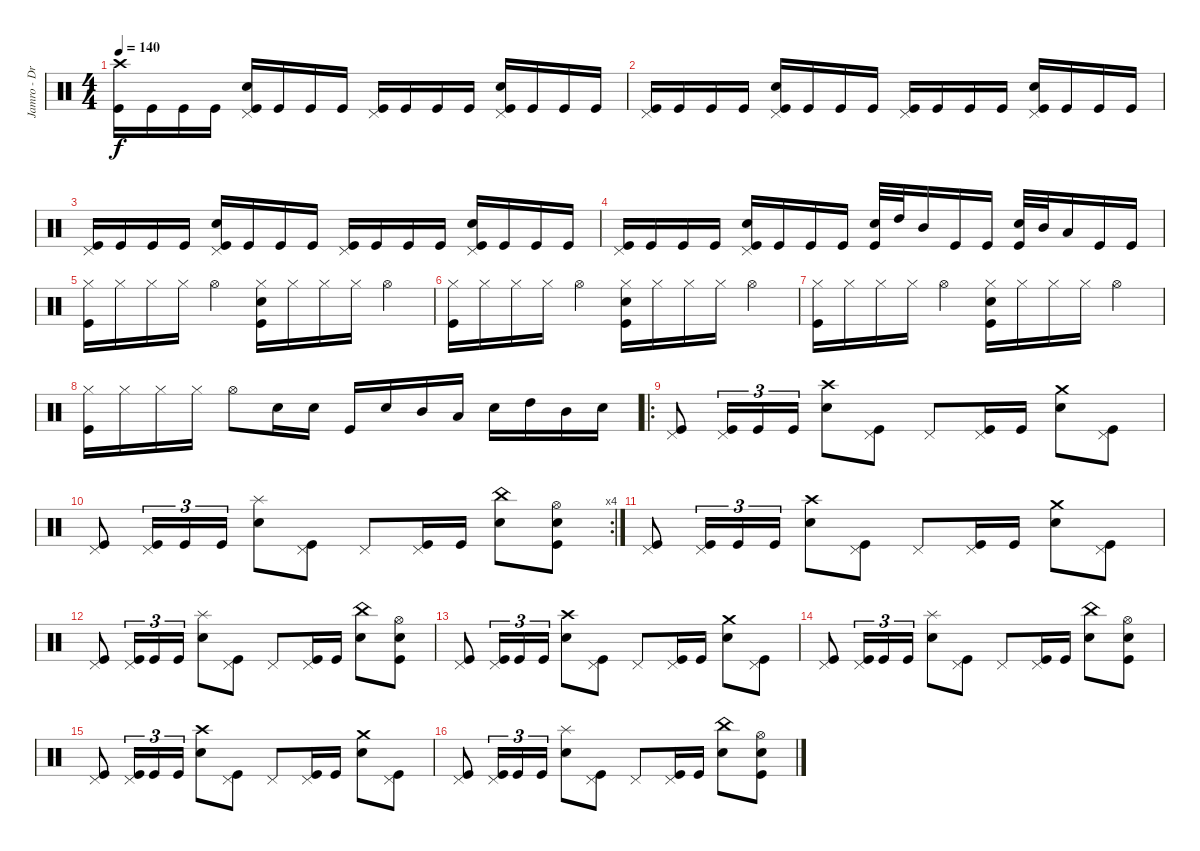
\track ("Jamro - Drums" "Jamro - Dr") {instrument percussion}
\staff {score}
\articulation defaults
\ts (4 4)
\tempo 140
\clef neutral
\ks c
("Kick (hit)" "Crash high (hit)").16{dy f} "Kick (hit)".16 "Kick (hit)".16 "Kick (hit)".16 ("Electric Snare (hit)" "Kick (hit)" "Pedal Hi-Hat (hit)").16 "Kick (hit)".16 "Kick (hit)".16 "Kick (hit)".16 ("Kick (hit)" "Pedal Hi-Hat (hit)").16 "Kick (hit)".16 "Kick (hit)".16 "Kick (hit)".16 ("Electric Snare (hit)" "Kick (hit)" "Pedal Hi-Hat (hit)").16 "Kick (hit)".16 "Kick (hit)".16 "Kick (hit)".16 |
("Kick (hit)" "Pedal Hi-Hat (hit)").16 "Kick (hit)".16 "Kick (hit)".16 "Kick (hit)".16 ("Electric Snare (hit)" "Kick (hit)" "Pedal Hi-Hat (hit)").16 "Kick (hit)".16 "Kick (hit)".16 "Kick (hit)".16 ("Kick (hit)" "Pedal Hi-Hat (hit)").16 "Kick (hit)".16 "Kick (hit)".16 "Kick (hit)".16 ("Electric Snare (hit)" "Kick (hit)" "Pedal Hi-Hat (hit)").16 "Kick (hit)".16 "Kick (hit)".16 "Kick (hit)".16 |
("Kick (hit)" "Pedal Hi-Hat (hit)").16 "Kick (hit)".16 "Kick (hit)".16 "Kick (hit)".16 ("Electric Snare (hit)" "Kick (hit)" "Pedal Hi-Hat (hit)").16 "Kick (hit)".16 "Kick (hit)".16 "Kick (hit)".16 ("Kick (hit)" "Pedal Hi-Hat (hit)").16 "Kick (hit)".16 "Kick (hit)".16 "Kick (hit)".16 ("Electric Snare (hit)" "Kick (hit)" "Pedal Hi-Hat (hit)").16 "Kick (hit)".16 "Kick (hit)".16 "Kick (hit)".16 |
("Kick (hit)" "Pedal Hi-Hat (hit)").16 "Kick (hit)".16 "Kick (hit)".16 "Kick (hit)".16 ("Kick (hit)" "Electric Snare (hit)" "Pedal Hi-Hat (hit)").16 "Kick (hit)".16 "Kick (hit)".16 "Kick (hit)".16 ("Electric Snare (hit)" "Kick (hit)").32 "High Tom (hit)".32 "Mid Tom (hit)".16 "Kick (hit)".16 "Kick (hit)".16 ("Electric Snare (hit)" "Kick (hit)").32 "Mid Tom (hit)".32 "Low Tom (hit)".16 "Kick (hit)".16 "Kick (hit)".16 |
("Hi-Hat (closed)" "Kick (hit)").16 "Hi-Hat (closed)".16 "Hi-Hat (closed)".16 "Hi-Hat (closed)".16 "Hi-Hat (open)".4 ("Kick (hit)" "Hi-Hat (closed)" "Electric Snare (hit)").16 "Hi-Hat (closed)".16 "Hi-Hat (closed)".16 "Hi-Hat (closed)".16 "Hi-Hat (open)".4 |
("Hi-Hat (closed)" "Kick (hit)").16 "Hi-Hat (closed)".16 "Hi-Hat (closed)".16 "Hi-Hat (closed)".16 "Hi-Hat (open)".4 ("Kick (hit)" "Hi-Hat (closed)" "Electric Snare (hit)").16 "Hi-Hat (closed)".16 "Hi-Hat (closed)".16 "Hi-Hat (closed)".16 "Hi-Hat (open)".4 |
("Hi-Hat (closed)" "Kick (hit)").16 "Hi-Hat (closed)".16 "Hi-Hat (closed)".16 "Hi-Hat (closed)".16 "Hi-Hat (open)".4 ("Kick (hit)" "Hi-Hat (closed)" "Electric Snare (hit)").16 "Hi-Hat (closed)".16 "Hi-Hat (closed)".16 "Hi-Hat (closed)".16 "Hi-Hat (open)".4 |
("Hi-Hat (closed)" "Kick (hit)").16 "Hi-Hat (closed)".16 "Hi-Hat (closed)".16 "Hi-Hat (closed)".16 "Hi-Hat (open)".8 "Electric Snare (hit)".16 "Electric Snare (hit)".16 "Kick (hit)".16 "Electric Snare (hit)".16 "Mid Tom (hit)".16 "Low Tom (hit)".16 "Electric Snare (hit)".16 "High Tom (hit)".16 "Mid Tom (hit)".16 "Electric Snare (hit)".16 |
\ro
("Kick (hit)" "Pedal Hi-Hat (hit)").8 ("Kick (hit)" "Pedal Hi-Hat (hit)").16{tu (3 2)} "Kick (hit)".16{tu (3 2)} "Kick (hit)".16{tu (3 2)} ("Electric Snare (hit)" "Crash high (hit)").8 ("Kick (hit)" "Pedal Hi-Hat (hit)").8 "Pedal Hi-Hat (hit)".8 ("Kick (hit)" "Pedal Hi-Hat (hit)").16 "Kick (hit)".16 ("Electric Snare (hit)" "Crash medium (hit)").8 ("Kick (hit)" "Pedal Hi-Hat (hit)").8 |
\rc 4
("Kick (hit)" "Pedal Hi-Hat (hit)").8 ("Kick (hit)" "Pedal Hi-Hat (hit)").16{tu (3 2)} "Kick (hit)".16{tu (3 2)} "Kick (hit)".16{tu (3 2)} ("Electric Snare (hit)" "Splash (hit)").8 ("Kick (hit)" "Pedal Hi-Hat (hit)").8 "Pedal Hi-Hat (hit)".8 ("Kick (hit)" "Pedal Hi-Hat (hit)").16 "Kick (hit)".16 ("Electric Snare (hit)" "China (hit)").8 ("Kick (hit)" "Electric Snare (hit)" "Hi-Hat (open)").8 |
("Kick (hit)" "Pedal Hi-Hat (hit)").8 ("Kick (hit)" "Pedal Hi-Hat (hit)").16{tu (3 2)} "Kick (hit)".16{tu (3 2)} "Kick (hit)".16{tu (3 2)} ("Electric Snare (hit)" "Crash high (hit)").8 ("Kick (hit)" "Pedal Hi-Hat (hit)").8 "Pedal Hi-Hat (hit)".8 ("Kick (hit)" "Pedal Hi-Hat (hit)").16 "Kick (hit)".16 ("Electric Snare (hit)" "Crash medium (hit)").8 ("Kick (hit)" "Pedal Hi-Hat (hit)").8 |
("Kick (hit)" "Pedal Hi-Hat (hit)").8 ("Kick (hit)" "Pedal Hi-Hat (hit)").16{tu (3 2)} "Kick (hit)".16{tu (3 2)} "Kick (hit)".16{tu (3 2)} ("Electric Snare (hit)" "Splash (hit)").8 ("Kick (hit)" "Pedal Hi-Hat (hit)").8 "Pedal Hi-Hat (hit)".8 ("Kick (hit)" "Pedal Hi-Hat (hit)").16 "Kick (hit)".16 ("Electric Snare (hit)" "China (hit)").8 ("Kick (hit)" "Electric Snare (hit)" "Hi-Hat (open)").8 |
("Kick (hit)" "Pedal Hi-Hat (hit)").8 ("Kick (hit)" "Pedal Hi-Hat (hit)").16{tu (3 2)} "Kick (hit)".16{tu (3 2)} "Kick (hit)".16{tu (3 2)} ("Electric Snare (hit)" "Crash high (hit)").8 ("Kick (hit)" "Pedal Hi-Hat (hit)").8 "Pedal Hi-Hat (hit)".8 ("Kick (hit)" "Pedal Hi-Hat (hit)").16 "Kick (hit)".16 ("Electric Snare (hit)" "Crash medium (hit)").8 ("Kick (hit)" "Pedal Hi-Hat (hit)").8 |
("Kick (hit)" "Pedal Hi-Hat (hit)").8 ("Kick (hit)" "Pedal Hi-Hat (hit)").16{tu (3 2)} "Kick (hit)".16{tu (3 2)} "Kick (hit)".16{tu (3 2)} ("Electric Snare (hit)" "Splash (hit)").8 ("Kick (hit)" "Pedal Hi-Hat (hit)").8 "Pedal Hi-Hat (hit)".8 ("Kick (hit)" "Pedal Hi-Hat (hit)").16 "Kick (hit)".16 ("Electric Snare (hit)" "China (hit)").8 ("Kick (hit)" "Electric Snare (hit)" "Hi-Hat (open)").8 |
("Kick (hit)" "Pedal Hi-Hat (hit)").8 ("Kick (hit)" "Pedal Hi-Hat (hit)").16{tu (3 2)} "Kick (hit)".16{tu (3 2)} "Kick (hit)".16{tu (3 2)} ("Electric Snare (hit)" "Crash high (hit)").8 ("Kick (hit)" "Pedal Hi-Hat (hit)").8 "Pedal Hi-Hat (hit)".8 ("Kick (hit)" "Pedal Hi-Hat (hit)").16 "Kick (hit)".16 ("Electric Snare (hit)" "Crash medium (hit)").8 ("Kick (hit)" "Pedal Hi-Hat (hit)").8 |
("Kick (hit)" "Pedal Hi-Hat (hit)").8 ("Kick (hit)" "Pedal Hi-Hat (hit)").16{tu (3 2)} "Kick (hit)".16{tu (3 2)} "Kick (hit)".16{tu (3 2)} ("Electric Snare (hit)" "Splash (hit)").8 ("Kick (hit)" "Pedal Hi-Hat (hit)").8 "Pedal Hi-Hat (hit)".8 ("Kick (hit)" "Pedal Hi-Hat (hit)").16 "Kick (hit)".16 ("Electric Snare (hit)" "China (hit)").8 ("Kick (hit)" "Electric Snare (hit)" "Hi-Hat (open)").8
